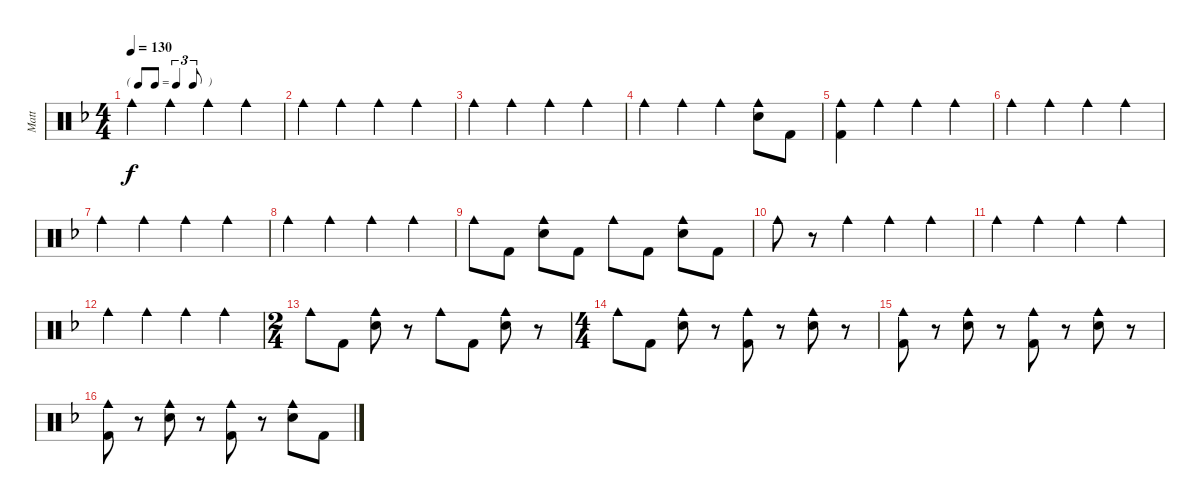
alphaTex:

\track ("Matt" "Matt") {instrument percussion}
\staff {score}
\articulation defaults
\ts (4 4)
\tf triplet8th
\tempo 130
\clef neutral
\ks f "Cowbell medium (hit)".4{dy f} "Cowbell medium (hit)".4 "Cowbell medium (hit)".4 "Cowbell medium (hit)".4
|
"Cowbell medium (hit)".4 "Cowbell medium (hit)".4 "Cowbell medium (hit)".4 "Cowbell medium (hit)".4 |
"Cowbell medium (hit)".4 "Cowbell medium (hit)".4 "Cowbell medium (hit)".4 "Cowbell medium (hit)".4 |
"Cowbell medium (hit)".4 "Cowbell medium (hit)".4 "Cowbell medium (hit)".4 ("Cowbell medium (hit)" "Snare (hit) 2").8 "Kick (hit) 2".8 |
("Cowbell medium (hit)" "Kick (hit) 2").4 "Cowbell medium (hit)".4 "Cowbell medium (hit)".4 "Cowbell medium (hit)".4 |
"Cowbell medium (hit)".4 "Cowbell medium (hit)".4 "Cowbell medium (hit)".4 "Cowbell medium (hit)".4 |
"Cowbell medium (hit)".4 "Cowbell medium (hit)".4 "Cowbell medium (hit)".4 "Cowbell medium (hit)".4 |
"Cowbell medium (hit)".4 "Cowbell medium (hit)".4 "Cowbell medium (hit)".4 "Cowbell medium (hit)".4 |
"Cowbell medium (hit)".8 "Kick (hit) 2".8 ("Cowbell medium (hit)" "Snare (hit) 2").8 "Kick (hit) 2".8 "Cowbell medium (hit)".8 "Kick (hit) 2".8 ("Cowbell medium (hit)" "Snare (hit) 2").8 "Kick (hit) 2".8 |
"Cowbell medium (hit)".8 r.8 "Cowbell medium (hit)".4 "Cowbell medium (hit)".4 "Cowbell medium (hit)".4 |
"Cowbell medium (hit)".4 "Cowbell medium (hit)".4 "Cowbell medium (hit)".4 "Cowbell medium (hit)".4 |
"Cowbell medium (hit)".4 "Cowbell medium (hit)".4 "Cowbell medium (hit)".4 "Cowbell medium (hit)".4 |
\ts (2 4)
"Cowbell medium (hit)".8 "Kick (hit) 2".8 ("Cowbell medium (hit)" "Snare (hit) 2").8 r.8 "Cowbell medium (hit)".8 "Kick (hit) 2".8 ("Cowbell medium (hit)" "Snare (hit) 2").8 r.8 |
\ts (4 4)
"Cowbell medium (hit)".8 "Kick (hit) 2".8 ("Cowbell medium (hit)" "Snare (hit) 2").8 r.8 ("Cowbell medium (hit)" "Kick (hit) 2").8 r.8 ("Cowbell medium (hit)" "Snare (hit) 2").8 r.8 |
("Cowbell medium (hit)" "Kick (hit) 2").8 r.8 ("Cowbell medium (hit)" "Snare (hit) 2").8 r.8 ("Cowbell medium (hit)" "Kick (hit) 2").8 r.8 ("Cowbell medium (hit)" "Snare (hit) 2").8 r.8 |
("Cowbell medium (hit)" "Kick (hit) 2").8 r.8 ("Cowbell medium (hit)" "Snare (hit) 2").8 r.8 ("Cowbell medium (hit)" "Kick (hit) 2").8 r.8 ("Cowbell medium (hit)" "Snare (hit) 2").8 "Kick (hit) 2".8
